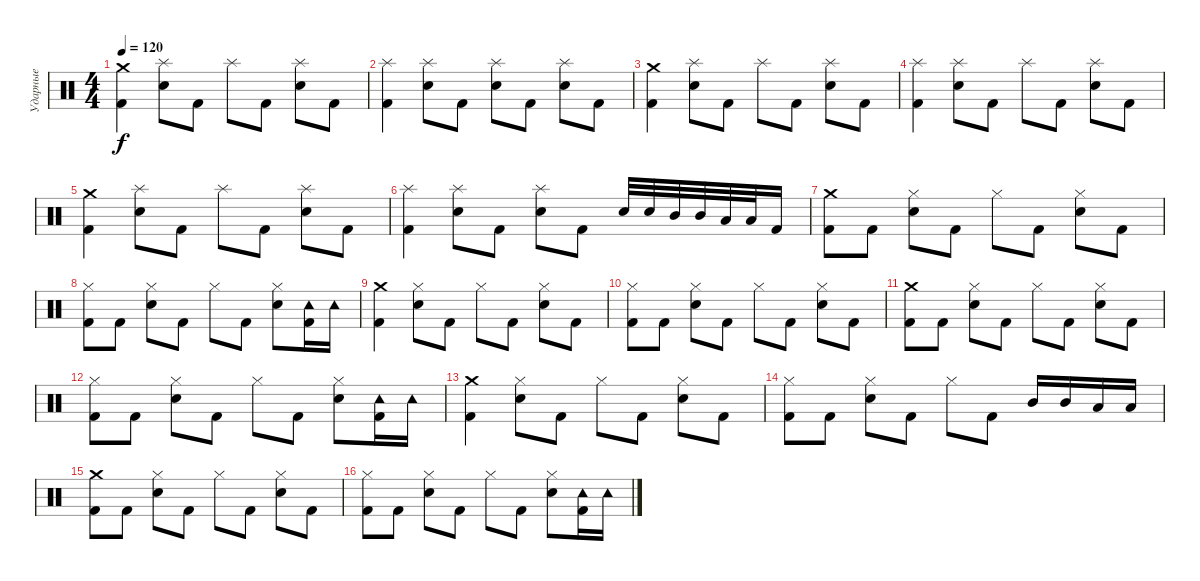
\track ("Ударные" "Ударные") {instrument percussion}
\staff {score}
\articulation defaults
\ts (4 4)
\tempo 120
\clef neutral
\ks c
("Crash medium (hit)" "Kick (hit) 2").4{dy f} ("Splash (hit)" "Electric Snare (hit)").8 "Kick (hit) 2".8 "Splash (hit)".8 "Kick (hit) 2".8 ("Splash (hit)" "Electric Snare (hit)").8 "Kick (hit) 2".8 |
("Splash (hit)" "Kick (hit) 2").4 ("Splash (hit)" "Electric Snare (hit)").8 "Kick (hit) 2".8 ("Splash (hit)" "Electric Snare (hit)").8 "Kick (hit) 2".8 ("Splash (hit)" "Electric Snare (hit)").8 "Kick (hit) 2".8 |
("Crash medium (hit)" "Kick (hit) 2").4 ("Splash (hit)" "Electric Snare (hit)").8 "Kick (hit) 2".8 "Splash (hit)".8 "Kick (hit) 2".8 ("Splash (hit)" "Electric Snare (hit)").8 "Kick (hit) 2".8 |
("Splash (hit)" "Kick (hit) 2").4 ("Splash (hit)" "Electric Snare (hit)").8 "Kick (hit) 2".8 "Splash (hit)".8 "Kick (hit) 2".8 ("Splash (hit)" "Electric Snare (hit)").8 "Kick (hit) 2".8 |
("Crash medium (hit)" "Kick (hit) 2").4 ("Splash (hit)" "Electric Snare (hit)").8 "Kick (hit) 2".8 "Splash (hit)".8 "Kick (hit) 2".8 ("Splash (hit)" "Electric Snare (hit)").8 "Kick (hit) 2".8 |
("Splash (hit)" "Kick (hit) 2").4 ("Splash (hit)" "Electric Snare (hit)").8 "Kick (hit) 2".8 ("Splash (hit)" "Electric Snare (hit)").8 "Kick (hit) 2".8 "Electric Snare (hit)".32 "Electric Snare (hit)".32 "Mid Tom (hit)".32 "Mid Tom (hit)".32 "Low Tom (hit)".32 "Low Tom (hit)".32 "Kick (hit) 2".16 |
("Crash medium (hit)" "Kick (hit) 2").8 "Kick (hit) 2".8 ("Hi-Hat (closed)" "Electric Snare (hit)").8 "Kick (hit) 2".8 "Hi-Hat (closed)".8 "Kick (hit) 2".8 ("Hi-Hat (closed)" "Electric Snare (hit)").8 "Kick (hit) 2".8 |
("Hi-Hat (closed)" "Kick (hit) 2").8 "Kick (hit) 2".8 ("Hi-Hat (closed)" "Electric Snare (hit)").8 "Kick (hit) 2".8 "Hi-Hat (closed)".8 "Kick (hit) 2".8 ("Hi-Hat (closed)" "Electric Snare (hit)").8 ("Tambourine (hit)" "Kick (hit) 2").16 "Tambourine (hit)".16 |
("Crash medium (hit)" "Kick (hit) 2").4 ("Hi-Hat (closed)" "Electric Snare (hit)").8 "Kick (hit) 2".8 "Hi-Hat (closed)".8 "Kick (hit) 2".8 ("Hi-Hat (closed)" "Electric Snare (hit)").8 "Kick (hit) 2".8 |
("Hi-Hat (closed)" "Kick (hit) 2").8 "Kick (hit) 2".8 ("Hi-Hat (closed)" "Electric Snare (hit)").8 "Kick (hit) 2".8 "Hi-Hat (closed)".8 "Kick (hit) 2".8 ("Hi-Hat (closed)" "Electric Snare (hit)").8 "Kick (hit) 2".8 |
("Crash medium (hit)" "Kick (hit) 2").8 "Kick (hit) 2".8 ("Hi-Hat (closed)" "Electric Snare (hit)").8 "Kick (hit) 2".8 "Hi-Hat (closed)".8 "Kick (hit) 2".8 ("Hi-Hat (closed)" "Electric Snare (hit)").8 "Kick (hit) 2".8 |
("Hi-Hat (closed)" "Kick (hit) 2").8 "Kick (hit) 2".8 ("Hi-Hat (closed)" "Electric Snare (hit)").8 "Kick (hit) 2".8 "Hi-Hat (closed)".8 "Kick (hit) 2".8 ("Hi-Hat (closed)" "Electric Snare (hit)").8 ("Tambourine (hit)" "Kick (hit) 2").16 "Tambourine (hit)".16 |
("Crash medium (hit)" "Kick (hit) 2").4 ("Hi-Hat (closed)" "Electric Snare (hit)").8 "Kick (hit) 2".8 "Hi-Hat (closed)".8 "Kick (hit) 2".8 ("Hi-Hat (closed)" "Electric Snare (hit)").8 "Kick (hit) 2".8 |
("Hi-Hat (closed)" "Kick (hit) 2").8 "Kick (hit) 2".8 ("Hi-Hat (closed)" "Electric Snare (hit)").8 "Kick (hit) 2".8 "Hi-Hat (closed)".8 "Kick (hit) 2".8 "Mid Tom (hit)".16 "Mid Tom (hit)".16 "Low Tom (hit)".16 "Low Tom (hit)".16 |
("Crash medium (hit)" "Kick (hit) 2").8 "Kick (hit) 2".8 ("Hi-Hat (closed)" "Electric Snare (hit)").8 "Kick (hit) 2".8 "Hi-Hat (closed)".8 "Kick (hit) 2".8 ("Hi-Hat (closed)" "Electric Snare (hit)").8 "Kick (hit) 2".8 |
("Hi-Hat (closed)" "Kick (hit) 2").8 "Kick (hit) 2".8 ("Hi-Hat (closed)" "Electric Snare (hit)").8 "Kick (hit) 2".8 "Hi-Hat (closed)".8 "Kick (hit) 2".8 ("Hi-Hat (closed)" "Electric Snare (hit)").8 ("Tambourine (hit)" "Kick (hit) 2").16 "Tambourine (hit)".16
